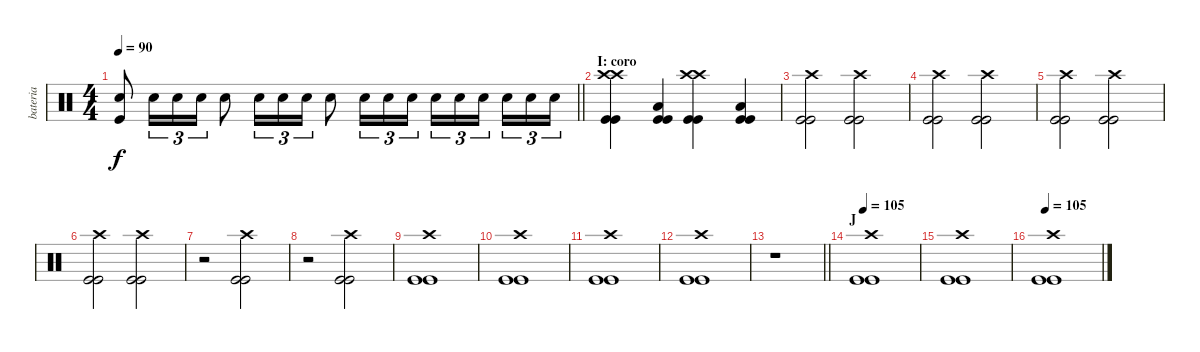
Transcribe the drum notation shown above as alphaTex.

\track ("bateria" "bateria") {instrument percussion}
\staff {score}
\articulation defaults
\ts (4 4)
\tempo 90
\clef neutral
\barLineRight lightlight
\ks c
("Snare (hit) 2" "Kick (hit)").8{dy f} "Snare (hit) 2".16{tu (3 2)} "Snare (hit) 2".16{tu (3 2)} "Snare (hit) 2".16{tu (3 2)} "Snare (hit) 2".8 "Snare (hit) 2".16{tu (3 2)} "Snare (hit) 2".16{tu (3 2)} "Snare (hit) 2".16{tu (3 2)} "Snare (hit) 2".8 "Snare (hit) 2".16{tu (3 2)} "Snare (hit) 2".16{tu (3 2)} "Snare (hit) 2".16{tu (3 2)} "Snare (hit) 2".16{tu (3 2)} "Snare (hit) 2".16{tu (3 2)} "Snare (hit) 2".16{tu (3 2)} "Snare (hit) 2".16{tu (3 2)} "Snare (hit) 2".16{tu (3 2)} "Snare (hit) 2".16{tu (3 2)} |
\section ("" "I: coro")
("Crash high (hit)" "Crash high (hit)" "Kick (hit)" "Kick (hit)").4 ("Low Tom (hit)" "Kick (hit)" "Kick (hit)").4 ("Crash high (hit)" "Crash high (hit)" "Kick (hit)" "Kick (hit)").4 ("Low Tom (hit)" "Kick (hit)" "Kick (hit)").4 |
("Crash high (hit)" "Kick (hit)" "Kick (hit)").2 ("Crash high (hit)" "Kick (hit)" "Kick (hit)").2 |
("Crash high (hit)" "Kick (hit)" "Kick (hit)").2 ("Crash high (hit)" "Kick (hit)" "Kick (hit)").2 |
("Crash high (hit)" "Kick (hit)" "Kick (hit)").2 ("Crash high (hit)" "Kick (hit)" "Kick (hit)").2 |
("Crash high (hit)" "Kick (hit)" "Kick (hit)").2 ("Crash high (hit)" "Kick (hit)" "Kick (hit)").2 |
r.2 ("Crash high (hit)" "Kick (hit)" "Kick (hit)").2 |
r.2 ("Crash high (hit)" "Kick (hit)" "Kick (hit)").2 |
("Crash high (hit)" "Kick (hit)" "Kick (hit)").1 |
("Crash high (hit)" "Kick (hit)" "Kick (hit)").1 |
("Crash high (hit)" "Kick (hit)" "Kick (hit)").1 |
("Crash high (hit)" "Kick (hit)" "Kick (hit)").1 |
\barLineRight lightlight
r.1 |
\section ("" "J")
\tempo 105
("Crash high (hit)" "Kick (hit)" "Kick (hit)").1 |
("Crash high (hit)" "Kick (hit)" "Kick (hit)").1 |
\tempo 105
("Crash high (hit)" "Kick (hit)" "Kick (hit)").1
